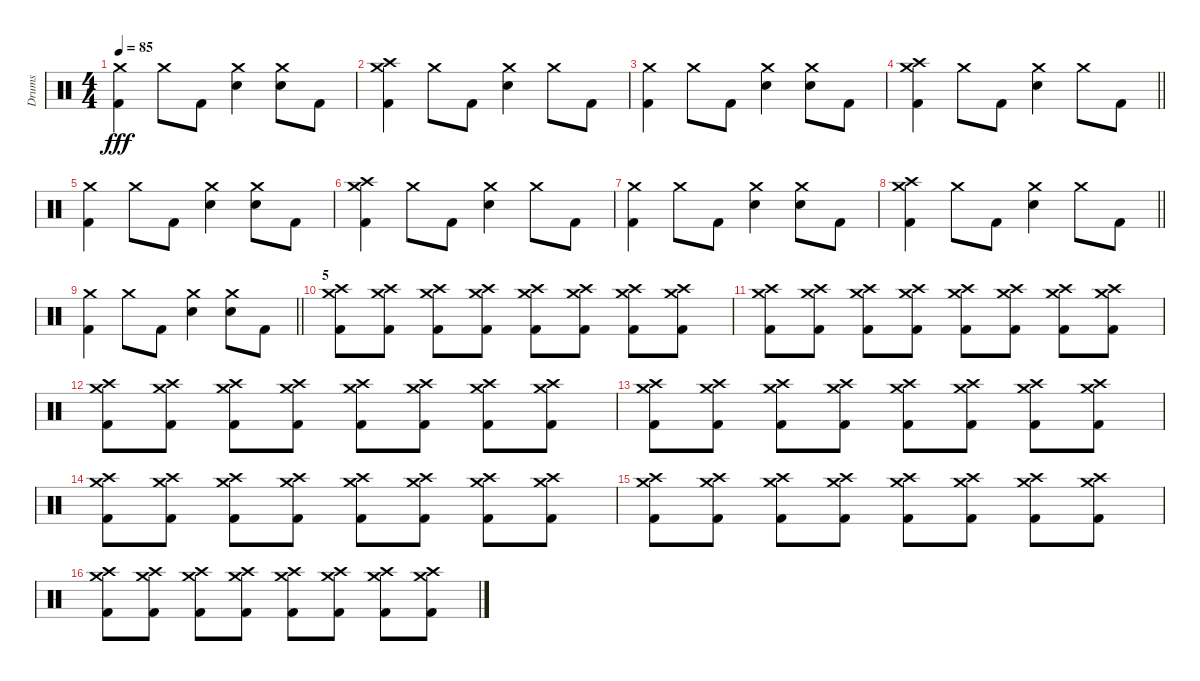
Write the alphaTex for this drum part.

\track ("Drums" "Drums") {instrument percussion}
\staff {score}
\articulation defaults
\ts (4 4)
\tempo 85
\clef neutral
\ks c
("Crash medium (hit)" "Kick (hit) 2").4{dy fff} "Crash medium (hit)".8 "Kick (hit) 2".8 ("Crash medium (hit)" "Snare (hit) 2").4 ("Crash medium (hit)" "Snare (hit) 2").8 "Kick (hit) 2".8 |
("Crash high (hit)" "Crash medium (hit)" "Kick (hit) 2").4 "Crash medium (hit)".8 "Kick (hit) 2".8 ("Crash medium (hit)" "Snare (hit) 2").4 "Crash medium (hit)".8 "Kick (hit) 2".8 |
("Crash medium (hit)" "Kick (hit) 2").4 "Crash medium (hit)".8 "Kick (hit) 2".8 ("Crash medium (hit)" "Snare (hit) 2").4 ("Crash medium (hit)" "Snare (hit) 2").8 "Kick (hit) 2".8 |
\barLineRight lightlight
("Crash high (hit)" "Crash medium (hit)" "Kick (hit) 2").4 "Crash medium (hit)".8 "Kick (hit) 2".8 ("Crash medium (hit)" "Snare (hit) 2").4 "Crash medium (hit)".8 "Kick (hit) 2".8 |
("Crash medium (hit)" "Kick (hit) 2").4 "Crash medium (hit)".8 "Kick (hit) 2".8 ("Crash medium (hit)" "Snare (hit) 2").4 ("Crash medium (hit)" "Snare (hit) 2").8 "Kick (hit) 2".8 |
("Crash high (hit)" "Crash medium (hit)" "Kick (hit) 2").4 "Crash medium (hit)".8 "Kick (hit) 2".8 ("Crash medium (hit)" "Snare (hit) 2").4 "Crash medium (hit)".8 "Kick (hit) 2".8 |
("Crash medium (hit)" "Kick (hit) 2").4 "Crash medium (hit)".8 "Kick (hit) 2".8 ("Crash medium (hit)" "Snare (hit) 2").4 ("Crash medium (hit)" "Snare (hit) 2").8 "Kick (hit) 2".8 |
\barLineRight lightlight
("Crash high (hit)" "Crash medium (hit)" "Kick (hit) 2").4 "Crash medium (hit)".8 "Kick (hit) 2".8 ("Crash medium (hit)" "Snare (hit) 2").4 "Crash medium (hit)".8 "Kick (hit) 2".8 |
\barLineRight lightlight
("Crash medium (hit)" "Kick (hit) 2").4 "Crash medium (hit)".8 "Kick (hit) 2".8 ("Crash medium (hit)" "Snare (hit) 2").4 ("Crash medium (hit)" "Snare (hit) 2").8 "Kick (hit) 2".8 |
\section ("" "5")
("Crash high (hit)" "Crash medium (hit)" "Kick (hit) 2").8 ("Crash high (hit)" "Crash medium (hit)" "Kick (hit) 2").8 ("Crash high (hit)" "Crash medium (hit)" "Kick (hit) 2").8 ("Crash high (hit)" "Crash medium (hit)" "Kick (hit) 2").8 ("Crash high (hit)" "Crash medium (hit)" "Kick (hit) 2").8 ("Crash high (hit)" "Crash medium (hit)" "Kick (hit) 2").8 ("Crash high (hit)" "Crash medium (hit)" "Kick (hit) 2").8 ("Crash high (hit)" "Crash medium (hit)" "Kick (hit) 2").8 |
("Crash high (hit)" "Crash medium (hit)" "Kick (hit) 2").8 ("Crash high (hit)" "Crash medium (hit)" "Kick (hit) 2").8 ("Crash high (hit)" "Crash medium (hit)" "Kick (hit) 2").8 ("Crash high (hit)" "Crash medium (hit)" "Kick (hit) 2").8 ("Crash high (hit)" "Crash medium (hit)" "Kick (hit) 2").8 ("Crash high (hit)" "Crash medium (hit)" "Kick (hit) 2").8 ("Crash high (hit)" "Crash medium (hit)" "Kick (hit) 2").8 ("Crash high (hit)" "Crash medium (hit)" "Kick (hit) 2").8 |
("Crash high (hit)" "Crash medium (hit)" "Kick (hit) 2").8 ("Crash high (hit)" "Crash medium (hit)" "Kick (hit) 2").8 ("Crash high (hit)" "Crash medium (hit)" "Kick (hit) 2").8 ("Crash high (hit)" "Crash medium (hit)" "Kick (hit) 2").8 ("Crash high (hit)" "Crash medium (hit)" "Kick (hit) 2").8 ("Crash high (hit)" "Crash medium (hit)" "Kick (hit) 2").8 ("Crash high (hit)" "Crash medium (hit)" "Kick (hit) 2").8 ("Crash high (hit)" "Crash medium (hit)" "Kick (hit) 2").8 |
("Crash high (hit)" "Crash medium (hit)" "Kick (hit) 2").8 ("Crash high (hit)" "Crash medium (hit)" "Kick (hit) 2").8 ("Crash high (hit)" "Crash medium (hit)" "Kick (hit) 2").8 ("Crash high (hit)" "Crash medium (hit)" "Kick (hit) 2").8 ("Crash high (hit)" "Crash medium (hit)" "Kick (hit) 2").8 ("Crash high (hit)" "Crash medium (hit)" "Kick (hit) 2").8 ("Crash high (hit)" "Crash medium (hit)" "Kick (hit) 2").8 ("Crash high (hit)" "Crash medium (hit)" "Kick (hit) 2").8 |
("Crash high (hit)" "Crash medium (hit)" "Kick (hit) 2").8 ("Crash high (hit)" "Crash medium (hit)" "Kick (hit) 2").8 ("Crash high (hit)" "Crash medium (hit)" "Kick (hit) 2").8 ("Crash high (hit)" "Crash medium (hit)" "Kick (hit) 2").8 ("Crash high (hit)" "Crash medium (hit)" "Kick (hit) 2").8 ("Crash high (hit)" "Crash medium (hit)" "Kick (hit) 2").8 ("Crash high (hit)" "Crash medium (hit)" "Kick (hit) 2").8 ("Crash high (hit)" "Crash medium (hit)" "Kick (hit) 2").8 |
("Crash high (hit)" "Crash medium (hit)" "Kick (hit) 2").8 ("Crash high (hit)" "Crash medium (hit)" "Kick (hit) 2").8 ("Crash high (hit)" "Crash medium (hit)" "Kick (hit) 2").8 ("Crash high (hit)" "Crash medium (hit)" "Kick (hit) 2").8 ("Crash high (hit)" "Crash medium (hit)" "Kick (hit) 2").8 ("Crash high (hit)" "Crash medium (hit)" "Kick (hit) 2").8 ("Crash high (hit)" "Crash medium (hit)" "Kick (hit) 2").8 ("Crash high (hit)" "Crash medium (hit)" "Kick (hit) 2").8 |
("Crash high (hit)" "Crash medium (hit)" "Kick (hit) 2").8 ("Crash high (hit)" "Crash medium (hit)" "Kick (hit) 2").8 ("Crash high (hit)" "Crash medium (hit)" "Kick (hit) 2").8 ("Crash high (hit)" "Crash medium (hit)" "Kick (hit) 2").8 ("Crash high (hit)" "Crash medium (hit)" "Kick (hit) 2").8 ("Crash high (hit)" "Crash medium (hit)" "Kick (hit) 2").8 ("Crash high (hit)" "Crash medium (hit)" "Kick (hit) 2").8 ("Crash high (hit)" "Crash medium (hit)" "Kick (hit) 2").8
